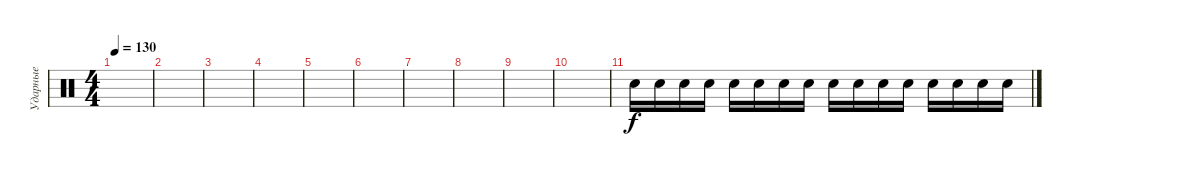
\track ("Ударные" "Ударные") {instrument percussion}
\staff {score}
\articulation defaults
\ts (4 4)
\tempo 130
\clef neutral
\ks c
|
|
|
|
|
|
|
|
|
|
"Electric Snare (hit)".16 "Electric Snare (hit)".16 "Electric Snare (hit)".16 "Electric Snare (hit)".16 "Electric Snare (hit)".16 "Electric Snare (hit)".16 "Electric Snare (hit)".16 "Electric Snare (hit)".16 "Electric Snare (hit)".16 "Electric Snare (hit)".16 "Electric Snare (hit)".16 "Electric Snare (hit)".16 "Electric Snare (hit)".16 "Electric Snare (hit)".16 "Electric Snare (hit)".16 "Electric Snare (hit)".16
